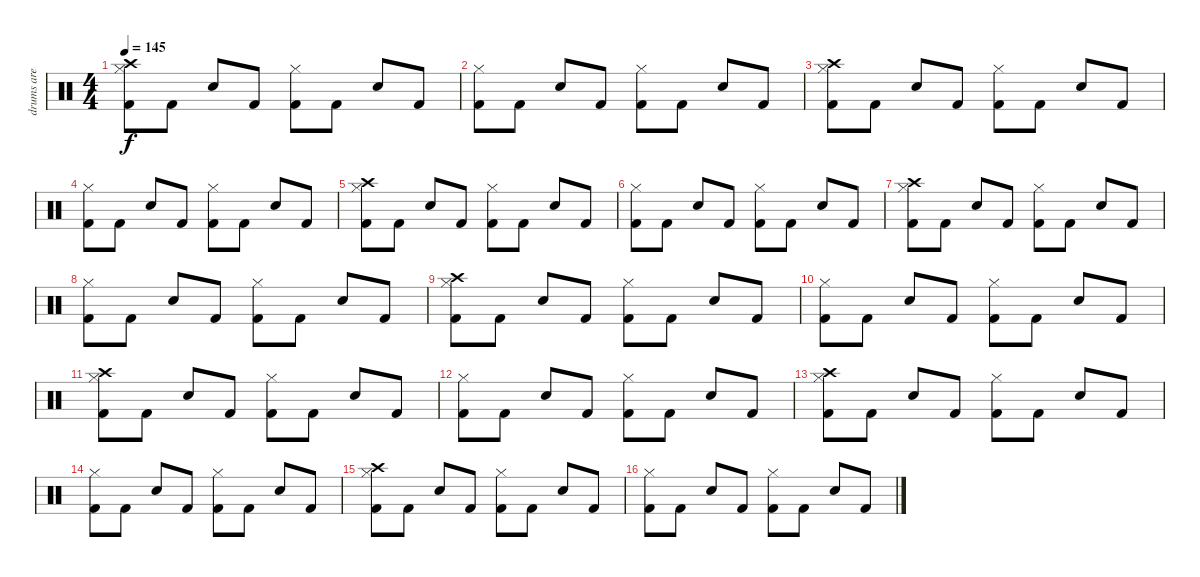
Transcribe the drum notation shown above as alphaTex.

\track ("drums are cool   >.<" "drums are ") {instrument percussion}
\staff {score}
\articulation defaults
\ts (4 4)
\tempo 145
\clef neutral
\ks c
("Crash high (hit)" "Hi-Hat (closed)" "Kick (hit) 2").8{dy f volume 13} "Kick (hit) 2".8 "Snare (hit) 2".8 "Kick (hit) 2".8 ("Hi-Hat (closed)" "Kick (hit) 2").8 "Kick (hit) 2".8 "Snare (hit) 2".8 "Kick (hit) 2".8 |
("Hi-Hat (closed)" "Kick (hit) 2").8 "Kick (hit) 2".8 "Snare (hit) 2".8 "Kick (hit) 2".8 ("Hi-Hat (closed)" "Kick (hit) 2").8 "Kick (hit) 2".8 "Snare (hit) 2".8 "Kick (hit) 2".8 |
("Crash high (hit)" "Hi-Hat (closed)" "Kick (hit) 2").8 "Kick (hit) 2".8 "Snare (hit) 2".8 "Kick (hit) 2".8 ("Hi-Hat (closed)" "Kick (hit) 2").8 "Kick (hit) 2".8 "Snare (hit) 2".8 "Kick (hit) 2".8 |
("Hi-Hat (closed)" "Kick (hit) 2").8 "Kick (hit) 2".8 "Snare (hit) 2".8 "Kick (hit) 2".8 ("Hi-Hat (closed)" "Kick (hit) 2").8 "Kick (hit) 2".8 "Snare (hit) 2".8 "Kick (hit) 2".8 |
("Crash high (hit)" "Hi-Hat (closed)" "Kick (hit) 2").8{volume 13} "Kick (hit) 2".8 "Snare (hit) 2".8 "Kick (hit) 2".8 ("Hi-Hat (closed)" "Kick (hit) 2").8 "Kick (hit) 2".8 "Snare (hit) 2".8 "Kick (hit) 2".8 |
("Hi-Hat (closed)" "Kick (hit) 2").8 "Kick (hit) 2".8 "Snare (hit) 2".8 "Kick (hit) 2".8 ("Hi-Hat (closed)" "Kick (hit) 2").8 "Kick (hit) 2".8 "Snare (hit) 2".8 "Kick (hit) 2".8 |
("Crash high (hit)" "Hi-Hat (closed)" "Kick (hit) 2").8 "Kick (hit) 2".8 "Snare (hit) 2".8 "Kick (hit) 2".8 ("Hi-Hat (closed)" "Kick (hit) 2").8 "Kick (hit) 2".8 "Snare (hit) 2".8 "Kick (hit) 2".8 |
("Hi-Hat (closed)" "Kick (hit) 2").8 "Kick (hit) 2".8 "Snare (hit) 2".8 "Kick (hit) 2".8 ("Hi-Hat (closed)" "Kick (hit) 2").8 "Kick (hit) 2".8 "Snare (hit) 2".8 "Kick (hit) 2".8 |
("Crash high (hit)" "Hi-Hat (closed)" "Kick (hit) 2").8{volume 13} "Kick (hit) 2".8 "Snare (hit) 2".8 "Kick (hit) 2".8 ("Hi-Hat (closed)" "Kick (hit) 2").8 "Kick (hit) 2".8 "Snare (hit) 2".8 "Kick (hit) 2".8 |
("Hi-Hat (closed)" "Kick (hit) 2").8 "Kick (hit) 2".8 "Snare (hit) 2".8 "Kick (hit) 2".8 ("Hi-Hat (closed)" "Kick (hit) 2").8 "Kick (hit) 2".8 "Snare (hit) 2".8 "Kick (hit) 2".8 |
("Crash high (hit)" "Hi-Hat (closed)" "Kick (hit) 2").8 "Kick (hit) 2".8 "Snare (hit) 2".8 "Kick (hit) 2".8 ("Hi-Hat (closed)" "Kick (hit) 2").8 "Kick (hit) 2".8 "Snare (hit) 2".8 "Kick (hit) 2".8 |
("Hi-Hat (closed)" "Kick (hit) 2").8 "Kick (hit) 2".8 "Snare (hit) 2".8 "Kick (hit) 2".8 ("Hi-Hat (closed)" "Kick (hit) 2").8 "Kick (hit) 2".8 "Snare (hit) 2".8 "Kick (hit) 2".8 |
("Crash high (hit)" "Hi-Hat (closed)" "Kick (hit) 2").8{volume 13} "Kick (hit) 2".8 "Snare (hit) 2".8 "Kick (hit) 2".8 ("Hi-Hat (closed)" "Kick (hit) 2").8 "Kick (hit) 2".8 "Snare (hit) 2".8 "Kick (hit) 2".8 |
("Hi-Hat (closed)" "Kick (hit) 2").8 "Kick (hit) 2".8 "Snare (hit) 2".8 "Kick (hit) 2".8 ("Hi-Hat (closed)" "Kick (hit) 2").8 "Kick (hit) 2".8 "Snare (hit) 2".8 "Kick (hit) 2".8 |
("Crash high (hit)" "Hi-Hat (closed)" "Kick (hit) 2").8 "Kick (hit) 2".8 "Snare (hit) 2".8 "Kick (hit) 2".8 ("Hi-Hat (closed)" "Kick (hit) 2").8 "Kick (hit) 2".8 "Snare (hit) 2".8 "Kick (hit) 2".8 |
("Hi-Hat (closed)" "Kick (hit) 2").8 "Kick (hit) 2".8 "Snare (hit) 2".8 "Kick (hit) 2".8 ("Hi-Hat (closed)" "Kick (hit) 2").8 "Kick (hit) 2".8 "Snare (hit) 2".8 "Kick (hit) 2".8
